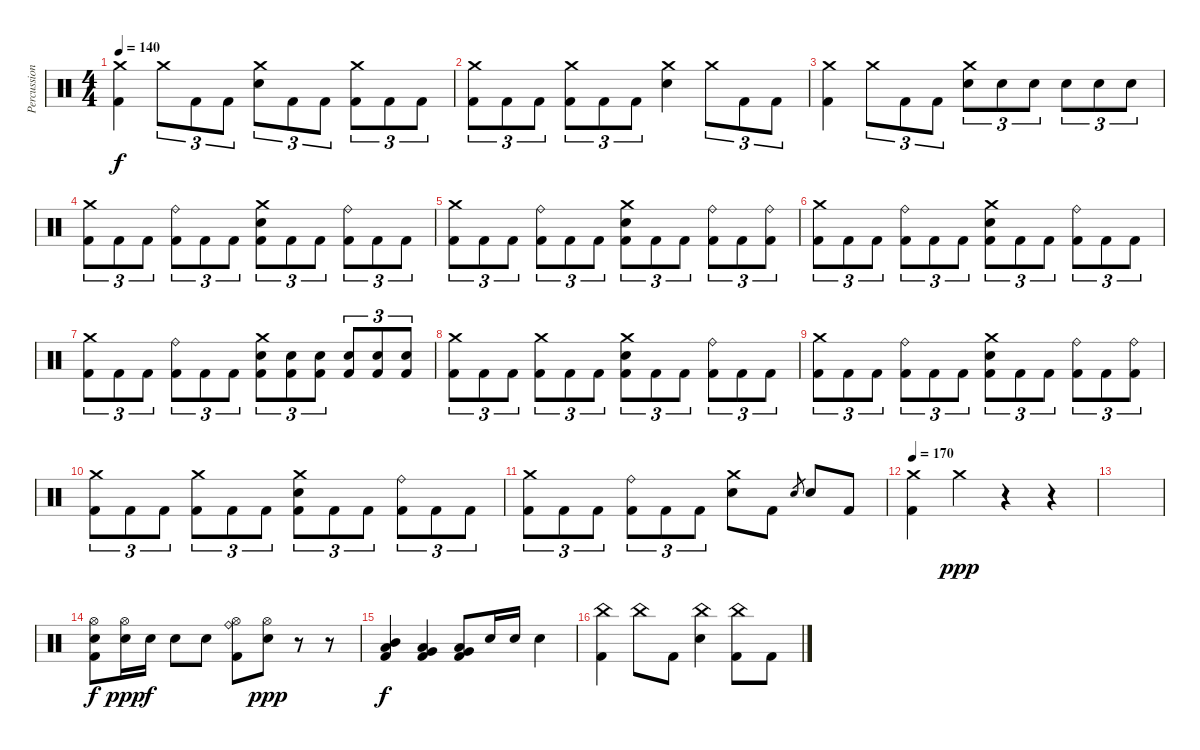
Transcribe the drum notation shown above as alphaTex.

\track ("Percussion" "Percussion") {instrument percussion}
\staff {score}
\articulation defaults
\ts (4 4)
\tempo 140
\clef neutral
\ks c
("Crash medium (hit)" "Kick (hit) 2").4{dy f} "Crash medium (hit)".8{tu (3 2)} "Kick (hit) 2".8{tu (3 2)} "Kick (hit) 2".8{tu (3 2)} ("Crash medium (hit)" "Electric Snare (hit)").8{tu (3 2)} "Kick (hit) 2".8{tu (3 2)} "Kick (hit) 2".8{tu (3 2)} ("Crash medium (hit)" "Kick (hit) 2").8{tu (3 2)} "Kick (hit) 2".8{tu (3 2)} "Kick (hit) 2".8{tu (3 2)} |
("Crash medium (hit)" "Kick (hit) 2").8{tu (3 2)} "Kick (hit) 2".8{tu (3 2)} "Kick (hit) 2".8{tu (3 2)} ("Crash medium (hit)" "Kick (hit) 2").8{tu (3 2)} "Kick (hit) 2".8{tu (3 2)} "Kick (hit) 2".8{tu (3 2)} ("Crash medium (hit)" "Electric Snare (hit)").4 "Crash medium (hit)".8{tu (3 2)} "Kick (hit) 2".8{tu (3 2)} "Kick (hit) 2".8{tu (3 2)} |
("Crash medium (hit)" "Kick (hit) 2").4 "Crash medium (hit)".8{tu (3 2)} "Kick (hit) 2".8{tu (3 2)} "Kick (hit) 2".8{tu (3 2)} ("Crash medium (hit)" "Electric Snare (hit)").8{tu (3 2)} "Electric Snare (hit)".8{tu (3 2)} "Electric Snare (hit)".8{tu (3 2)} "Electric Snare (hit)".8{tu (3 2)} "Electric Snare (hit)".8{tu (3 2)} "Electric Snare (hit)".8{tu (3 2)} |
("Crash medium (hit)" "Kick (hit) 2").8{tu (3 2)} "Kick (hit) 2".8{tu (3 2)} "Kick (hit) 2".8{tu (3 2)} ("Ride (bell)" "Kick (hit) 2").8{tu (3 2)} "Kick (hit) 2".8{tu (3 2)} "Kick (hit) 2".8{tu (3 2)} ("Crash medium (hit)" "Electric Snare (hit)" "Kick (hit) 2").8{tu (3 2)} "Kick (hit) 2".8{tu (3 2)} "Kick (hit) 2".8{tu (3 2)} ("Ride (bell)" "Kick (hit) 2").8{tu (3 2)} "Kick (hit) 2".8{tu (3 2)} "Kick (hit) 2".8{tu (3 2)} |
("Crash medium (hit)" "Kick (hit) 2").8{tu (3 2)} "Kick (hit) 2".8{tu (3 2)} "Kick (hit) 2".8{tu (3 2)} ("Ride (bell)" "Kick (hit) 2").8{tu (3 2)} "Kick (hit) 2".8{tu (3 2)} "Kick (hit) 2".8{tu (3 2)} ("Crash medium (hit)" "Electric Snare (hit)" "Kick (hit) 2").8{tu (3 2)} "Kick (hit) 2".8{tu (3 2)} "Kick (hit) 2".8{tu (3 2)} ("Ride (bell)" "Kick (hit) 2").8{tu (3 2)} "Kick (hit) 2".8{tu (3 2)} ("Ride (bell)" "Kick (hit) 2").8{tu (3 2)} |
("Crash medium (hit)" "Kick (hit) 2").8{tu (3 2)} "Kick (hit) 2".8{tu (3 2)} "Kick (hit) 2".8{tu (3 2)} ("Ride (bell)" "Kick (hit) 2").8{tu (3 2)} "Kick (hit) 2".8{tu (3 2)} "Kick (hit) 2".8{tu (3 2)} ("Crash medium (hit)" "Electric Snare (hit)" "Kick (hit) 2").8{tu (3 2)} "Kick (hit) 2".8{tu (3 2)} "Kick (hit) 2".8{tu (3 2)} ("Ride (bell)" "Kick (hit) 2").8{tu (3 2)} "Kick (hit) 2".8{tu (3 2)} "Kick (hit) 2".8{tu (3 2)} |
("Crash medium (hit)" "Kick (hit) 2").8{tu (3 2)} "Kick (hit) 2".8{tu (3 2)} "Kick (hit) 2".8{tu (3 2)} ("Ride (bell)" "Kick (hit) 2").8{tu (3 2)} "Kick (hit) 2".8{tu (3 2)} "Kick (hit) 2".8{tu (3 2)} ("Crash medium (hit)" "Electric Snare (hit)" "Kick (hit) 2").8{tu (3 2)} ("Electric Snare (hit)" "Kick (hit) 2").8{tu (3 2)} ("Electric Snare (hit)" "Kick (hit) 2").8{tu (3 2)} ("Electric Snare (hit)" "Kick (hit) 2").8{tu (3 2)} ("Electric Snare (hit)" "Kick (hit) 2").8{tu (3 2)} ("Electric Snare (hit)" "Kick (hit) 2").8{tu (3 2)} |
("Crash medium (hit)" "Kick (hit) 2").8{tu (3 2)} "Kick (hit) 2".8{tu (3 2)} "Kick (hit) 2".8{tu (3 2)} ("Crash medium (hit)" "Kick (hit) 2").8{tu (3 2)} "Kick (hit) 2".8{tu (3 2)} "Kick (hit) 2".8{tu (3 2)} ("Crash medium (hit)" "Electric Snare (hit)" "Kick (hit) 2").8{tu (3 2)} "Kick (hit) 2".8{tu (3 2)} "Kick (hit) 2".8{tu (3 2)} ("Ride (bell)" "Kick (hit) 2").8{tu (3 2)} "Kick (hit) 2".8{tu (3 2)} "Kick (hit) 2".8{tu (3 2)} |
("Crash medium (hit)" "Kick (hit) 2").8{tu (3 2)} "Kick (hit) 2".8{tu (3 2)} "Kick (hit) 2".8{tu (3 2)} ("Ride (bell)" "Kick (hit) 2").8{tu (3 2)} "Kick (hit) 2".8{tu (3 2)} "Kick (hit) 2".8{tu (3 2)} ("Crash medium (hit)" "Electric Snare (hit)" "Kick (hit) 2").8{tu (3 2)} "Kick (hit) 2".8{tu (3 2)} "Kick (hit) 2".8{tu (3 2)} ("Ride (bell)" "Kick (hit) 2").8{tu (3 2)} "Kick (hit) 2".8{tu (3 2)} ("Ride (bell)" "Kick (hit) 2").8{tu (3 2)} |
("Crash medium (hit)" "Kick (hit) 2").8{tu (3 2)} "Kick (hit) 2".8{tu (3 2)} "Kick (hit) 2".8{tu (3 2)} ("Crash medium (hit)" "Kick (hit) 2").8{tu (3 2)} "Kick (hit) 2".8{tu (3 2)} "Kick (hit) 2".8{tu (3 2)} ("Crash medium (hit)" "Electric Snare (hit)" "Kick (hit) 2").8{tu (3 2)} "Kick (hit) 2".8{tu (3 2)} "Kick (hit) 2".8{tu (3 2)} ("Ride (bell)" "Kick (hit) 2").8{tu (3 2)} "Kick (hit) 2".8{tu (3 2)} "Kick (hit) 2".8{tu (3 2)} |
("Crash medium (hit)" "Kick (hit) 2").8{tu (3 2)} "Kick (hit) 2".8{tu (3 2)} "Kick (hit) 2".8{tu (3 2)} ("Ride (bell)" "Kick (hit) 2").8{tu (3 2)} "Kick (hit) 2".8{tu (3 2)} "Kick (hit) 2".8{tu (3 2)} ("Crash medium (hit)" "Electric Snare (hit)").8 "Kick (hit) 2".8 "Electric Snare (hit)".8{gr} "Electric Snare (hit)".8 "Kick (hit) 2".8 |
\tempo 170
("Crash medium (hit)" "Kick (hit) 2").4 "Crash medium (hit)".4{dy ppp} r.4 r.4 |
|
("Hi-Hat (open)" "Electric Snare (hit)" "Kick (hit) 2").8{dy f} ("Hi-Hat (open)" "Electric Snare (hit)").16{dy ppp} "Electric Snare (hit)".16{dy f} "Electric Snare (hit)".8 "Electric Snare (hit)".8 ("Hi-Hat (open)" "Ride (bell)" "Kick (hit) 2").8 ("Hi-Hat (open)" "Electric Snare (hit)").8{dy ppp} r.8 r.8 |
("Mid Tom (hit)" "Low Tom (hit)" "Kick (hit) 2").4{dy f} ("Low Tom (hit)" "Very Low Tom (hit)" "Kick (hit) 2").4 ("Very Low Tom (hit)" "Low Floor Tom (hit)" "Kick (hit) 2").8 "Electric Snare (hit)".16 "Electric Snare (hit)".16 "Electric Snare (hit)".4 |
("China (hit)" "Kick (hit) 2").4 "China (hit)".8 "Kick (hit) 2".8 ("China (hit)" "Electric Snare (hit)").4 ("China (hit)" "Kick (hit) 2").8 "Kick (hit) 2".8
